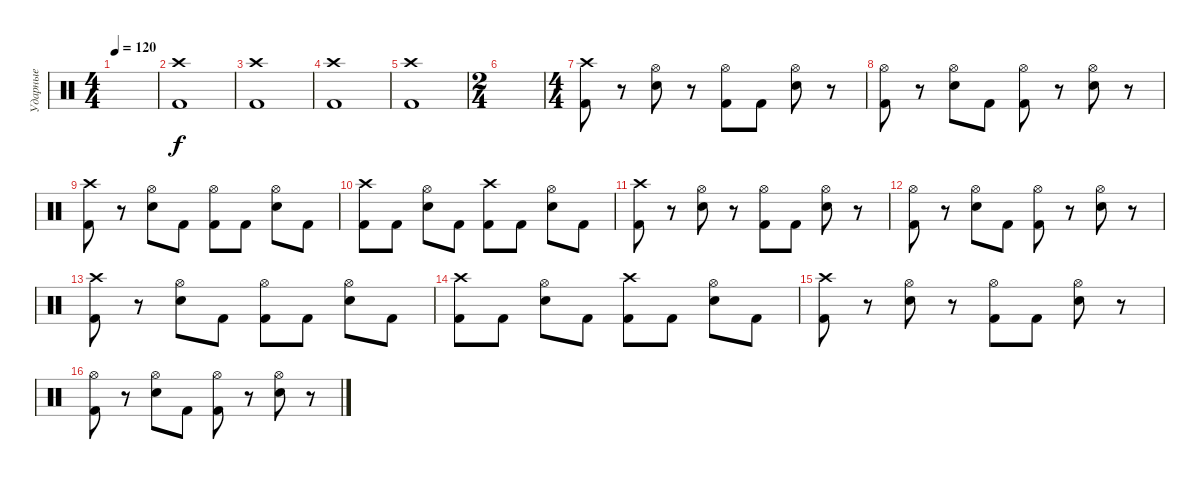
\track ("Ударные" "Ударные") {instrument percussion}
\staff {score}
\articulation defaults
\ts (4 4)
\tempo 120
\clef neutral
\ks c
|
("Crash high (hit)" "Kick (hit) 2").1 |
("Crash high (hit)" "Kick (hit) 2").1 |
("Crash high (hit)" "Kick (hit) 2").1 |
("Crash high (hit)" "Kick (hit) 2").1 |
\ts (2 4)
|
\ts (4 4)
("Crash high (hit)" "Kick (hit) 2").8 r.8 ("Hi-Hat (open)" "Snare (hit) 2").8 r.8 ("Hi-Hat (open)" "Kick (hit) 2").8 "Kick (hit) 2".8 ("Hi-Hat (open)" "Snare (hit) 2").8 r.8 |
("Hi-Hat (open)" "Kick (hit) 2").8 r.8 ("Hi-Hat (open)" "Snare (hit) 2").8 "Kick (hit) 2".8 ("Hi-Hat (open)" "Kick (hit) 2").8 r.8 ("Hi-Hat (open)" "Snare (hit) 2").8 r.8 |
("Crash high (hit)" "Kick (hit) 2").8 r.8 ("Hi-Hat (open)" "Snare (hit) 2").8 "Kick (hit) 2".8 ("Hi-Hat (open)" "Kick (hit) 2").8 "Kick (hit) 2".8 ("Hi-Hat (open)" "Snare (hit) 2").8 "Kick (hit) 2".8 |
("Crash high (hit)" "Kick (hit) 2").8 "Kick (hit) 2".8 ("Hi-Hat (open)" "Snare (hit) 2").8 "Kick (hit) 2".8 ("Crash high (hit)" "Kick (hit) 2").8 "Kick (hit) 2".8 ("Hi-Hat (open)" "Snare (hit) 2").8 "Kick (hit) 2".8 |
("Crash high (hit)" "Kick (hit) 2").8 r.8 ("Hi-Hat (open)" "Snare (hit) 2").8 r.8 ("Hi-Hat (open)" "Kick (hit) 2").8 "Kick (hit) 2".8 ("Hi-Hat (open)" "Snare (hit) 2").8 r.8 |
("Hi-Hat (open)" "Kick (hit) 2").8 r.8 ("Hi-Hat (open)" "Snare (hit) 2").8 "Kick (hit) 2".8 ("Hi-Hat (open)" "Kick (hit) 2").8 r.8 ("Hi-Hat (open)" "Snare (hit) 2").8 r.8 |
("Crash high (hit)" "Kick (hit) 2").8 r.8 ("Hi-Hat (open)" "Snare (hit) 2").8 "Kick (hit) 2".8 ("Hi-Hat (open)" "Kick (hit) 2").8 "Kick (hit) 2".8 ("Hi-Hat (open)" "Snare (hit) 2").8 "Kick (hit) 2".8 |
("Crash high (hit)" "Kick (hit) 2").8 "Kick (hit) 2".8 ("Hi-Hat (open)" "Snare (hit) 2").8 "Kick (hit) 2".8 ("Crash high (hit)" "Kick (hit) 2").8 "Kick (hit) 2".8 ("Hi-Hat (open)" "Snare (hit) 2").8 "Kick (hit) 2".8 |
("Crash high (hit)" "Kick (hit) 2").8 r.8 ("Hi-Hat (open)" "Snare (hit) 2").8 r.8 ("Hi-Hat (open)" "Kick (hit) 2").8 "Kick (hit) 2".8 ("Hi-Hat (open)" "Snare (hit) 2").8 r.8 |
("Hi-Hat (open)" "Kick (hit) 2").8 r.8 ("Hi-Hat (open)" "Snare (hit) 2").8 "Kick (hit) 2".8 ("Hi-Hat (open)" "Kick (hit) 2").8 r.8 ("Hi-Hat (open)" "Snare (hit) 2").8 r.8
